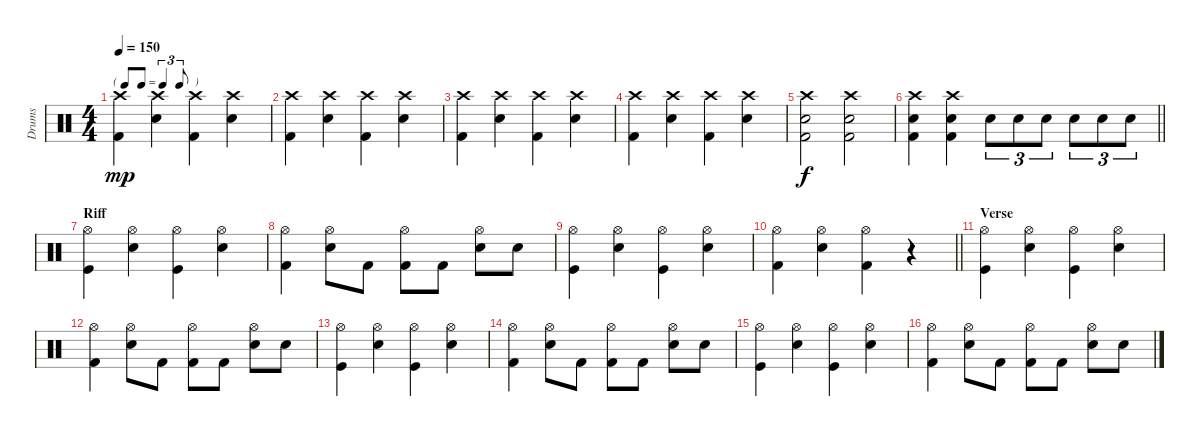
\track ("Drums" "Drums") {instrument percussion}
\staff {score}
\articulation defaults
\ts (4 4)
\tf triplet8th
\tempo 150
\clef neutral
\ks c
("Crash high (hit)" "Kick (hit) 2").4{dy mp} ("Crash high (hit)" "Snare (hit) 2").4 ("Crash high (hit)" "Kick (hit) 2").4 ("Crash high (hit)" "Snare (hit) 2").4 |
("Crash high (hit)" "Kick (hit) 2").4 ("Crash high (hit)" "Snare (hit) 2").4 ("Crash high (hit)" "Kick (hit) 2").4 ("Crash high (hit)" "Snare (hit) 2").4 |
("Crash high (hit)" "Kick (hit) 2").4 ("Crash high (hit)" "Snare (hit) 2").4 ("Crash high (hit)" "Kick (hit) 2").4 ("Crash high (hit)" "Snare (hit) 2").4 |
("Crash high (hit)" "Kick (hit) 2").4 ("Crash high (hit)" "Snare (hit) 2").4 ("Crash high (hit)" "Kick (hit) 2").4 ("Crash high (hit)" "Snare (hit) 2").4 |
("Crash high (hit)" "Snare (hit) 2" "Kick (hit) 2").2{dy f} ("Crash high (hit)" "Snare (hit) 2" "Kick (hit) 2").2 |
\barLineRight lightlight
("Crash high (hit)" "Snare (hit) 2" "Kick (hit) 2").4 ("Crash high (hit)" "Snare (hit) 2" "Kick (hit) 2").4 "Snare (hit) 2".8{tu (3 2)} "Snare (hit) 2".8{tu (3 2)} "Snare (hit) 2".8{tu (3 2)} "Snare (hit) 2".8{tu (3 2)} "Snare (hit) 2".8{tu (3 2)} "Snare (hit) 2".8{tu (3 2)} |
\section ("" "Riff")
("Hi-Hat (open)" "Kick (hit)").4 ("Hi-Hat (open)" "Snare (hit) 2").4 ("Hi-Hat (open)" "Kick (hit)").4 ("Hi-Hat (open)" "Snare (hit) 2").4 |
("Hi-Hat (open)" "Kick (hit) 2").4 ("Hi-Hat (open)" "Snare (hit) 2").8 "Kick (hit) 2".8 ("Hi-Hat (open)" "Kick (hit) 2").8 "Kick (hit) 2".8 ("Hi-Hat (open)" "Snare (hit) 2").8 "Snare (hit) 2".8 |
("Hi-Hat (open)" "Kick (hit)").4 ("Hi-Hat (open)" "Snare (hit) 2").4 ("Hi-Hat (open)" "Kick (hit)").4 ("Hi-Hat (open)" "Snare (hit) 2").4 |
\barLineRight lightlight
("Hi-Hat (open)" "Kick (hit) 2").4 ("Hi-Hat (open)" "Snare (hit) 2").4 ("Hi-Hat (open)" "Kick (hit) 2").4 r.4 |
\section ("" "Verse")
("Hi-Hat (open)" "Kick (hit)").4 ("Hi-Hat (open)" "Snare (hit) 2").4 ("Hi-Hat (open)" "Kick (hit)").4 ("Hi-Hat (open)" "Snare (hit) 2").4 |
("Hi-Hat (open)" "Kick (hit) 2").4 ("Hi-Hat (open)" "Snare (hit) 2").8 "Kick (hit) 2".8 ("Hi-Hat (open)" "Kick (hit) 2").8 "Kick (hit) 2".8 ("Hi-Hat (open)" "Snare (hit) 2").8 "Snare (hit) 2".8 |
("Hi-Hat (open)" "Kick (hit)").4 ("Hi-Hat (open)" "Snare (hit) 2").4 ("Hi-Hat (open)" "Kick (hit)").4 ("Hi-Hat (open)" "Snare (hit) 2").4 |
("Hi-Hat (open)" "Kick (hit) 2").4 ("Hi-Hat (open)" "Snare (hit) 2").8 "Kick (hit) 2".8 ("Hi-Hat (open)" "Kick (hit) 2").8 "Kick (hit) 2".8 ("Hi-Hat (open)" "Snare (hit) 2").8 "Snare (hit) 2".8 |
("Hi-Hat (open)" "Kick (hit)").4 ("Hi-Hat (open)" "Snare (hit) 2").4 ("Hi-Hat (open)" "Kick (hit)").4 ("Hi-Hat (open)" "Snare (hit) 2").4 |
("Hi-Hat (open)" "Kick (hit) 2").4 ("Hi-Hat (open)" "Snare (hit) 2").8 "Kick (hit) 2".8 ("Hi-Hat (open)" "Kick (hit) 2").8 "Kick (hit) 2".8 ("Hi-Hat (open)" "Snare (hit) 2").8 "Snare (hit) 2".8
